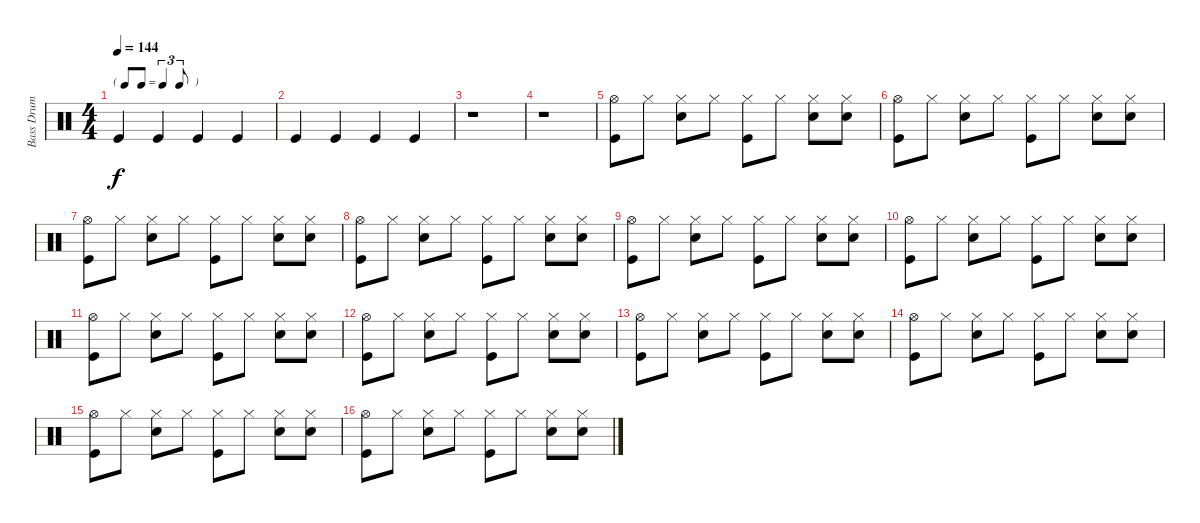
\track ("Bass Drum           " "Bass Drum ") {instrument percussion}
\staff {score}
\articulation defaults
\ts (4 4)
\tf triplet8th
\tempo 144
\clef neutral
\ks c "Kick (hit)".4{dy f} "Kick (hit)".4 "Kick (hit)".4 "Kick (hit)".4
|
"Kick (hit)".4 "Kick (hit)".4 "Kick (hit)".4 "Kick (hit)".4 |
r.1 |
r.1 |
("Kick (hit)" "Hi-Hat (open)").8 "Hi-Hat (closed)".8 ("Snare (hit) 2" "Hi-Hat (closed)").8 "Hi-Hat (closed)".8 ("Kick (hit)" "Hi-Hat (closed)").8 "Hi-Hat (closed)".8 ("Snare (hit) 2" "Hi-Hat (closed)").8 ("Snare (hit) 2" "Hi-Hat (closed)").8 |
("Kick (hit)" "Hi-Hat (open)").8 "Hi-Hat (closed)".8 ("Snare (hit) 2" "Hi-Hat (closed)").8 "Hi-Hat (closed)".8 ("Kick (hit)" "Hi-Hat (closed)").8 "Hi-Hat (closed)".8 ("Snare (hit) 2" "Hi-Hat (closed)").8 ("Snare (hit) 2" "Hi-Hat (closed)").8 |
("Kick (hit)" "Hi-Hat (open)").8 "Hi-Hat (closed)".8 ("Snare (hit) 2" "Hi-Hat (closed)").8 "Hi-Hat (closed)".8 ("Kick (hit)" "Hi-Hat (closed)").8 "Hi-Hat (closed)".8 ("Snare (hit) 2" "Hi-Hat (closed)").8 ("Snare (hit) 2" "Hi-Hat (closed)").8 |
("Kick (hit)" "Hi-Hat (open)").8 "Hi-Hat (closed)".8 ("Snare (hit) 2" "Hi-Hat (closed)").8 "Hi-Hat (closed)".8 ("Kick (hit)" "Hi-Hat (closed)").8 "Hi-Hat (closed)".8 ("Snare (hit) 2" "Hi-Hat (closed)").8 ("Snare (hit) 2" "Hi-Hat (closed)").8 |
("Kick (hit)" "Hi-Hat (open)").8 "Hi-Hat (closed)".8 ("Snare (hit) 2" "Hi-Hat (closed)").8 "Hi-Hat (closed)".8 ("Kick (hit)" "Hi-Hat (closed)").8 "Hi-Hat (closed)".8 ("Snare (hit) 2" "Hi-Hat (closed)").8 ("Snare (hit) 2" "Hi-Hat (closed)").8 |
("Kick (hit)" "Hi-Hat (open)").8 "Hi-Hat (closed)".8 ("Snare (hit) 2" "Hi-Hat (closed)").8 "Hi-Hat (closed)".8 ("Kick (hit)" "Hi-Hat (closed)").8 "Hi-Hat (closed)".8 ("Snare (hit) 2" "Hi-Hat (closed)").8 ("Snare (hit) 2" "Hi-Hat (closed)").8 |
("Kick (hit)" "Hi-Hat (open)").8 "Hi-Hat (closed)".8 ("Snare (hit) 2" "Hi-Hat (closed)").8 "Hi-Hat (closed)".8 ("Kick (hit)" "Hi-Hat (closed)").8 "Hi-Hat (closed)".8 ("Snare (hit) 2" "Hi-Hat (closed)").8 ("Snare (hit) 2" "Hi-Hat (closed)").8 |
("Kick (hit)" "Hi-Hat (open)").8 "Hi-Hat (closed)".8 ("Snare (hit) 2" "Hi-Hat (closed)").8 "Hi-Hat (closed)".8 ("Kick (hit)" "Hi-Hat (closed)").8 "Hi-Hat (closed)".8 ("Snare (hit) 2" "Hi-Hat (closed)").8 ("Snare (hit) 2" "Hi-Hat (closed)").8 |
("Kick (hit)" "Hi-Hat (open)").8 "Hi-Hat (closed)".8 ("Snare (hit) 2" "Hi-Hat (closed)").8 "Hi-Hat (closed)".8 ("Kick (hit)" "Hi-Hat (closed)").8 "Hi-Hat (closed)".8 ("Snare (hit) 2" "Hi-Hat (closed)").8 ("Snare (hit) 2" "Hi-Hat (closed)").8 |
("Kick (hit)" "Hi-Hat (open)").8 "Hi-Hat (closed)".8 ("Snare (hit) 2" "Hi-Hat (closed)").8 "Hi-Hat (closed)".8 ("Kick (hit)" "Hi-Hat (closed)").8 "Hi-Hat (closed)".8 ("Snare (hit) 2" "Hi-Hat (closed)").8 ("Snare (hit) 2" "Hi-Hat (closed)").8 |
("Kick (hit)" "Hi-Hat (open)").8 "Hi-Hat (closed)".8 ("Snare (hit) 2" "Hi-Hat (closed)").8 "Hi-Hat (closed)".8 ("Kick (hit)" "Hi-Hat (closed)").8 "Hi-Hat (closed)".8 ("Snare (hit) 2" "Hi-Hat (closed)").8 ("Snare (hit) 2" "Hi-Hat (closed)").8 |
("Kick (hit)" "Hi-Hat (open)").8 "Hi-Hat (closed)".8 ("Snare (hit) 2" "Hi-Hat (closed)").8 "Hi-Hat (closed)".8 ("Kick (hit)" "Hi-Hat (closed)").8 "Hi-Hat (closed)".8 ("Snare (hit) 2" "Hi-Hat (closed)").8 ("Snare (hit) 2" "Hi-Hat (closed)").8
